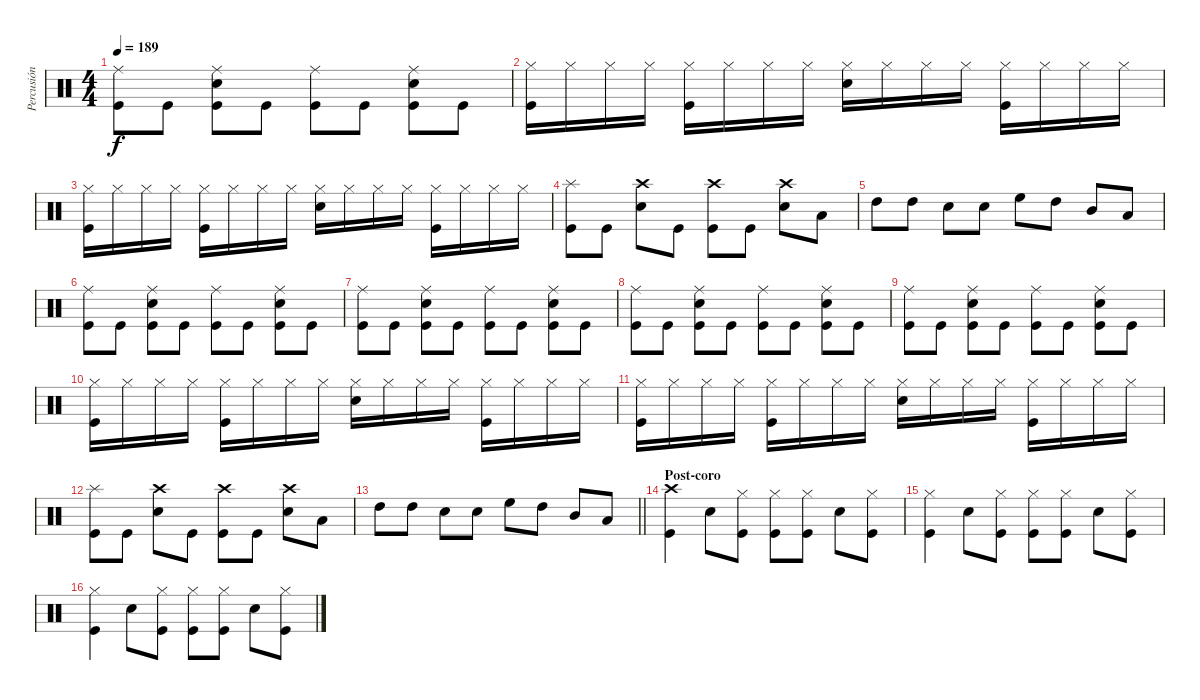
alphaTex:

\track ("Percusión" "Percusión") {instrument percussion}
\staff {score}
\articulation defaults
\ts (4 4)
\tempo 189
\clef neutral
\ks c
("Ride (middle)" "Kick (hit)").8{dy f} "Kick (hit)".8 ("Ride (middle)" "Electric Snare (hit)" "Kick (hit)").8 "Kick (hit)".8 ("Ride (middle)" "Kick (hit)").8 "Kick (hit)".8 ("Ride (middle)" "Electric Snare (hit)" "Kick (hit)").8 "Kick (hit)".8 |
("Hi-Hat (closed)" "Kick (hit)").16 "Hi-Hat (closed)".16 "Hi-Hat (closed)".16 "Hi-Hat (closed)".16 ("Hi-Hat (closed)" "Kick (hit)").16 "Hi-Hat (closed)".16 "Hi-Hat (closed)".16 "Hi-Hat (closed)".16 ("Hi-Hat (closed)" "Electric Snare (hit)").16 "Hi-Hat (closed)".16 "Hi-Hat (closed)".16 "Hi-Hat (closed)".16 ("Hi-Hat (closed)" "Kick (hit)").16 "Hi-Hat (closed)".16 "Hi-Hat (closed)".16 "Hi-Hat (closed)".16 |
("Hi-Hat (closed)" "Kick (hit)").16 "Hi-Hat (closed)".16 "Hi-Hat (closed)".16 "Hi-Hat (closed)".16 ("Hi-Hat (closed)" "Kick (hit)").16 "Hi-Hat (closed)".16 "Hi-Hat (closed)".16 "Hi-Hat (closed)".16 ("Hi-Hat (closed)" "Electric Snare (hit)").16 "Hi-Hat (closed)".16 "Hi-Hat (closed)".16 "Hi-Hat (closed)".16 ("Hi-Hat (closed)" "Kick (hit)").16 "Hi-Hat (closed)".16 "Hi-Hat (closed)".16 "Hi-Hat (closed)".16 |
("Splash (hit)" "Kick (hit)").8 "Kick (hit)".8 ("Crash high (hit)" "Electric Snare (hit)").8 "Kick (hit)".8 ("Crash high (hit)" "Kick (hit)").8 "Kick (hit)".8 ("Crash high (hit)" "Electric Snare (hit)").8 "Low Floor Tom (hit)".8 |
"High Tom (hit)".8 "High Tom (hit)".8 "Electric Snare (hit)".8 "Electric Snare (hit)".8 "High Floor Tom (hit)".8 "High Tom (hit)".8 "Mid Tom (hit)".8 "Low Tom (hit)".8 |
("Ride (middle)" "Kick (hit)").8 "Kick (hit)".8 ("Ride (middle)" "Electric Snare (hit)" "Kick (hit)").8 "Kick (hit)".8 ("Ride (middle)" "Kick (hit)").8 "Kick (hit)".8 ("Ride (middle)" "Electric Snare (hit)" "Kick (hit)").8 "Kick (hit)".8 |
("Ride (middle)" "Kick (hit)").8 "Kick (hit)".8 ("Ride (middle)" "Electric Snare (hit)" "Kick (hit)").8 "Kick (hit)".8 ("Ride (middle)" "Kick (hit)").8 "Kick (hit)".8 ("Ride (middle)" "Electric Snare (hit)" "Kick (hit)").8 "Kick (hit)".8 |
("Ride (middle)" "Kick (hit)").8 "Kick (hit)".8 ("Ride (middle)" "Electric Snare (hit)" "Kick (hit)").8 "Kick (hit)".8 ("Ride (middle)" "Kick (hit)").8 "Kick (hit)".8 ("Ride (middle)" "Electric Snare (hit)" "Kick (hit)").8 "Kick (hit)".8 |
("Ride (middle)" "Kick (hit)").8 "Kick (hit)".8 ("Ride (middle)" "Electric Snare (hit)" "Kick (hit)").8 "Kick (hit)".8 ("Ride (middle)" "Kick (hit)").8 "Kick (hit)".8 ("Ride (middle)" "Electric Snare (hit)" "Kick (hit)").8 "Kick (hit)".8 |
("Hi-Hat (closed)" "Kick (hit)").16 "Hi-Hat (closed)".16 "Hi-Hat (closed)".16 "Hi-Hat (closed)".16 ("Hi-Hat (closed)" "Kick (hit)").16 "Hi-Hat (closed)".16 "Hi-Hat (closed)".16 "Hi-Hat (closed)".16 ("Hi-Hat (closed)" "Electric Snare (hit)").16 "Hi-Hat (closed)".16 "Hi-Hat (closed)".16 "Hi-Hat (closed)".16 ("Hi-Hat (closed)" "Kick (hit)").16 "Hi-Hat (closed)".16 "Hi-Hat (closed)".16 "Hi-Hat (closed)".16 |
("Hi-Hat (closed)" "Kick (hit)").16 "Hi-Hat (closed)".16 "Hi-Hat (closed)".16 "Hi-Hat (closed)".16 ("Hi-Hat (closed)" "Kick (hit)").16 "Hi-Hat (closed)".16 "Hi-Hat (closed)".16 "Hi-Hat (closed)".16 ("Hi-Hat (closed)" "Electric Snare (hit)").16 "Hi-Hat (closed)".16 "Hi-Hat (closed)".16 "Hi-Hat (closed)".16 ("Hi-Hat (closed)" "Kick (hit)").16 "Hi-Hat (closed)".16 "Hi-Hat (closed)".16 "Hi-Hat (closed)".16 |
("Splash (hit)" "Kick (hit)").8 "Kick (hit)".8 ("Crash high (hit)" "Electric Snare (hit)").8 "Kick (hit)".8 ("Crash high (hit)" "Kick (hit)").8 "Kick (hit)".8 ("Crash high (hit)" "Electric Snare (hit)").8 "Low Floor Tom (hit)".8 |
\barLineRight lightlight "High Tom (hit)".8 "High Tom (hit)".8 "Electric Snare (hit)".8 "Electric Snare (hit)".8 "High Floor Tom (hit)".8 "High Tom (hit)".8 "Mid Tom (hit)".8 "Low Tom (hit)".8
|
\section ("" "Post-coro")
("Crash high (hit)" "Kick (hit)").4 "Electric Snare (hit)".8 ("Hi-Hat (closed)" "Kick (hit)").8 ("Hi-Hat (closed)" "Kick (hit)").8 ("Hi-Hat (closed)" "Kick (hit)").8 "Electric Snare (hit)".8 ("Hi-Hat (closed)" "Kick (hit)").8 |
("Hi-Hat (closed)" "Kick (hit)").4 "Electric Snare (hit)".8 ("Hi-Hat (closed)" "Kick (hit)").8 ("Hi-Hat (closed)" "Kick (hit)").8 ("Hi-Hat (closed)" "Kick (hit)").8 "Electric Snare (hit)".8 ("Hi-Hat (closed)" "Kick (hit)").8 |
("Hi-Hat (closed)" "Kick (hit)").4 "Electric Snare (hit)".8 ("Hi-Hat (closed)" "Kick (hit)").8 ("Hi-Hat (closed)" "Kick (hit)").8 ("Hi-Hat (closed)" "Kick (hit)").8 "Electric Snare (hit)".8 ("Hi-Hat (closed)" "Kick (hit)").8
